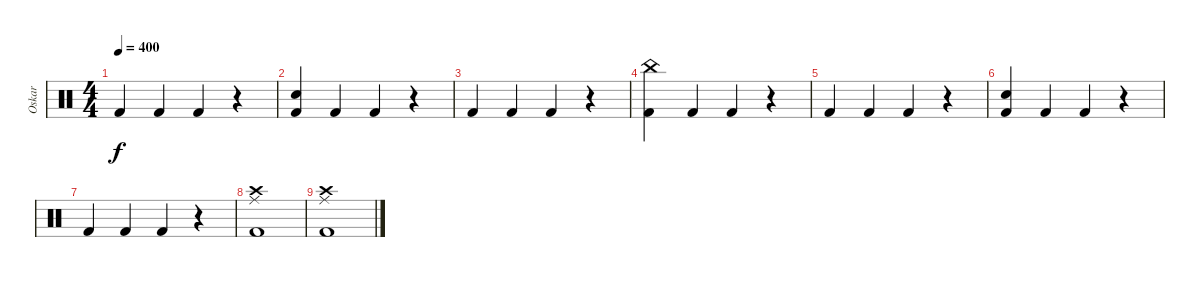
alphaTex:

\track ("Oskar" "Oskar") {instrument percussion}
\staff {score}
\articulation defaults
\ts (4 4)
\tempo 400
\clef neutral
\ks c "Kick (hit) 2".4{dy f} "Kick (hit) 2".4 "Kick (hit) 2".4
r.4 |
("Electric Snare (hit)" "Kick (hit) 2").4 "Kick (hit) 2".4 "Kick (hit) 2".4 r.4 |
"Kick (hit) 2".4 "Kick (hit) 2".4 "Kick (hit) 2".4 r.4 |
("China (hit)" "Kick (hit) 2").4 "Kick (hit) 2".4 "Kick (hit) 2".4 r.4 |
"Kick (hit) 2".4 "Kick (hit) 2".4 "Kick (hit) 2".4 r.4 |
("Electric Snare (hit)" "Kick (hit) 2").4 "Kick (hit) 2".4 "Kick (hit) 2".4 r.4 |
"Kick (hit) 2".4 "Kick (hit) 2".4 "Kick (hit) 2".4 r.4 |
("Crash high (hit)" "Ride (middle)" "Kick (hit) 2").1 |
("Crash high (hit)" "Ride (middle)" "Kick (hit) 2").1
